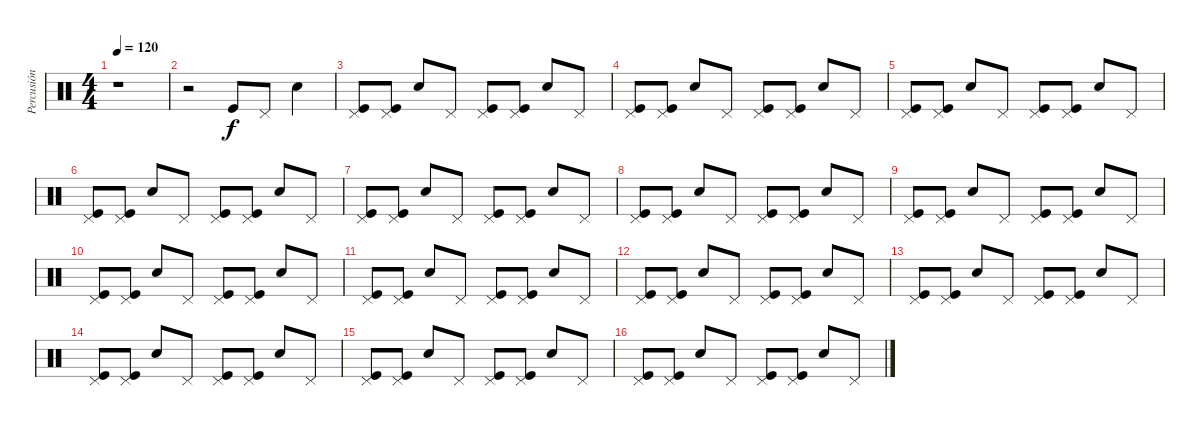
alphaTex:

\track ("Percusión" "Percusión") {instrument percussion}
\staff {score}
\articulation defaults
\ts (4 4)
\tempo 120
\clef neutral
\ks c
r.1{dy f} |
r.2 "Kick (hit)".8 "Pedal Hi-Hat (hit)".8 "Electric Snare (hit)".4 |
("Pedal Hi-Hat (hit)" "Kick (hit)").8 ("Pedal Hi-Hat (hit)" "Kick (hit)").8 "Electric Snare (hit)".8 "Pedal Hi-Hat (hit)".8 ("Pedal Hi-Hat (hit)" "Kick (hit)").8 ("Pedal Hi-Hat (hit)" "Kick (hit)").8 "Electric Snare (hit)".8 "Pedal Hi-Hat (hit)".8 |
("Pedal Hi-Hat (hit)" "Kick (hit)").8 ("Pedal Hi-Hat (hit)" "Kick (hit)").8 "Electric Snare (hit)".8 "Pedal Hi-Hat (hit)".8 ("Pedal Hi-Hat (hit)" "Kick (hit)").8 ("Pedal Hi-Hat (hit)" "Kick (hit)").8 "Electric Snare (hit)".8 "Pedal Hi-Hat (hit)".8 |
("Pedal Hi-Hat (hit)" "Kick (hit)").8 ("Pedal Hi-Hat (hit)" "Kick (hit)").8 "Electric Snare (hit)".8 "Pedal Hi-Hat (hit)".8 ("Pedal Hi-Hat (hit)" "Kick (hit)").8 ("Pedal Hi-Hat (hit)" "Kick (hit)").8 "Electric Snare (hit)".8 "Pedal Hi-Hat (hit)".8 |
("Pedal Hi-Hat (hit)" "Kick (hit)").8 ("Pedal Hi-Hat (hit)" "Kick (hit)").8 "Electric Snare (hit)".8 "Pedal Hi-Hat (hit)".8 ("Pedal Hi-Hat (hit)" "Kick (hit)").8 ("Pedal Hi-Hat (hit)" "Kick (hit)").8 "Electric Snare (hit)".8 "Pedal Hi-Hat (hit)".8 |
("Pedal Hi-Hat (hit)" "Kick (hit)").8 ("Pedal Hi-Hat (hit)" "Kick (hit)").8 "Electric Snare (hit)".8 "Pedal Hi-Hat (hit)".8 ("Pedal Hi-Hat (hit)" "Kick (hit)").8 ("Pedal Hi-Hat (hit)" "Kick (hit)").8 "Electric Snare (hit)".8 "Pedal Hi-Hat (hit)".8 |
("Pedal Hi-Hat (hit)" "Kick (hit)").8 ("Pedal Hi-Hat (hit)" "Kick (hit)").8 "Electric Snare (hit)".8 "Pedal Hi-Hat (hit)".8 ("Pedal Hi-Hat (hit)" "Kick (hit)").8 ("Pedal Hi-Hat (hit)" "Kick (hit)").8 "Electric Snare (hit)".8 "Pedal Hi-Hat (hit)".8 |
("Pedal Hi-Hat (hit)" "Kick (hit)").8 ("Pedal Hi-Hat (hit)" "Kick (hit)").8 "Electric Snare (hit)".8 "Pedal Hi-Hat (hit)".8 ("Pedal Hi-Hat (hit)" "Kick (hit)").8 ("Pedal Hi-Hat (hit)" "Kick (hit)").8 "Electric Snare (hit)".8 "Pedal Hi-Hat (hit)".8 |
("Pedal Hi-Hat (hit)" "Kick (hit)").8 ("Pedal Hi-Hat (hit)" "Kick (hit)").8 "Electric Snare (hit)".8 "Pedal Hi-Hat (hit)".8 ("Pedal Hi-Hat (hit)" "Kick (hit)").8 ("Pedal Hi-Hat (hit)" "Kick (hit)").8 "Electric Snare (hit)".8 "Pedal Hi-Hat (hit)".8 |
("Pedal Hi-Hat (hit)" "Kick (hit)").8 ("Pedal Hi-Hat (hit)" "Kick (hit)").8 "Electric Snare (hit)".8 "Pedal Hi-Hat (hit)".8 ("Pedal Hi-Hat (hit)" "Kick (hit)").8 ("Pedal Hi-Hat (hit)" "Kick (hit)").8 "Electric Snare (hit)".8 "Pedal Hi-Hat (hit)".8 |
("Pedal Hi-Hat (hit)" "Kick (hit)").8 ("Pedal Hi-Hat (hit)" "Kick (hit)").8 "Electric Snare (hit)".8 "Pedal Hi-Hat (hit)".8 ("Pedal Hi-Hat (hit)" "Kick (hit)").8 ("Pedal Hi-Hat (hit)" "Kick (hit)").8 "Electric Snare (hit)".8 "Pedal Hi-Hat (hit)".8 |
("Pedal Hi-Hat (hit)" "Kick (hit)").8 ("Pedal Hi-Hat (hit)" "Kick (hit)").8 "Electric Snare (hit)".8 "Pedal Hi-Hat (hit)".8 ("Pedal Hi-Hat (hit)" "Kick (hit)").8 ("Pedal Hi-Hat (hit)" "Kick (hit)").8 "Electric Snare (hit)".8 "Pedal Hi-Hat (hit)".8 |
("Pedal Hi-Hat (hit)" "Kick (hit)").8 ("Pedal Hi-Hat (hit)" "Kick (hit)").8 "Electric Snare (hit)".8 "Pedal Hi-Hat (hit)".8 ("Pedal Hi-Hat (hit)" "Kick (hit)").8 ("Pedal Hi-Hat (hit)" "Kick (hit)").8 "Electric Snare (hit)".8 "Pedal Hi-Hat (hit)".8 |
("Pedal Hi-Hat (hit)" "Kick (hit)").8 ("Pedal Hi-Hat (hit)" "Kick (hit)").8 "Electric Snare (hit)".8 "Pedal Hi-Hat (hit)".8 ("Pedal Hi-Hat (hit)" "Kick (hit)").8 ("Pedal Hi-Hat (hit)" "Kick (hit)").8 "Electric Snare (hit)".8 "Pedal Hi-Hat (hit)".8 |
("Pedal Hi-Hat (hit)" "Kick (hit)").8 ("Pedal Hi-Hat (hit)" "Kick (hit)").8 "Electric Snare (hit)".8 "Pedal Hi-Hat (hit)".8 ("Pedal Hi-Hat (hit)" "Kick (hit)").8 ("Pedal Hi-Hat (hit)" "Kick (hit)").8 "Electric Snare (hit)".8 "Pedal Hi-Hat (hit)".8
